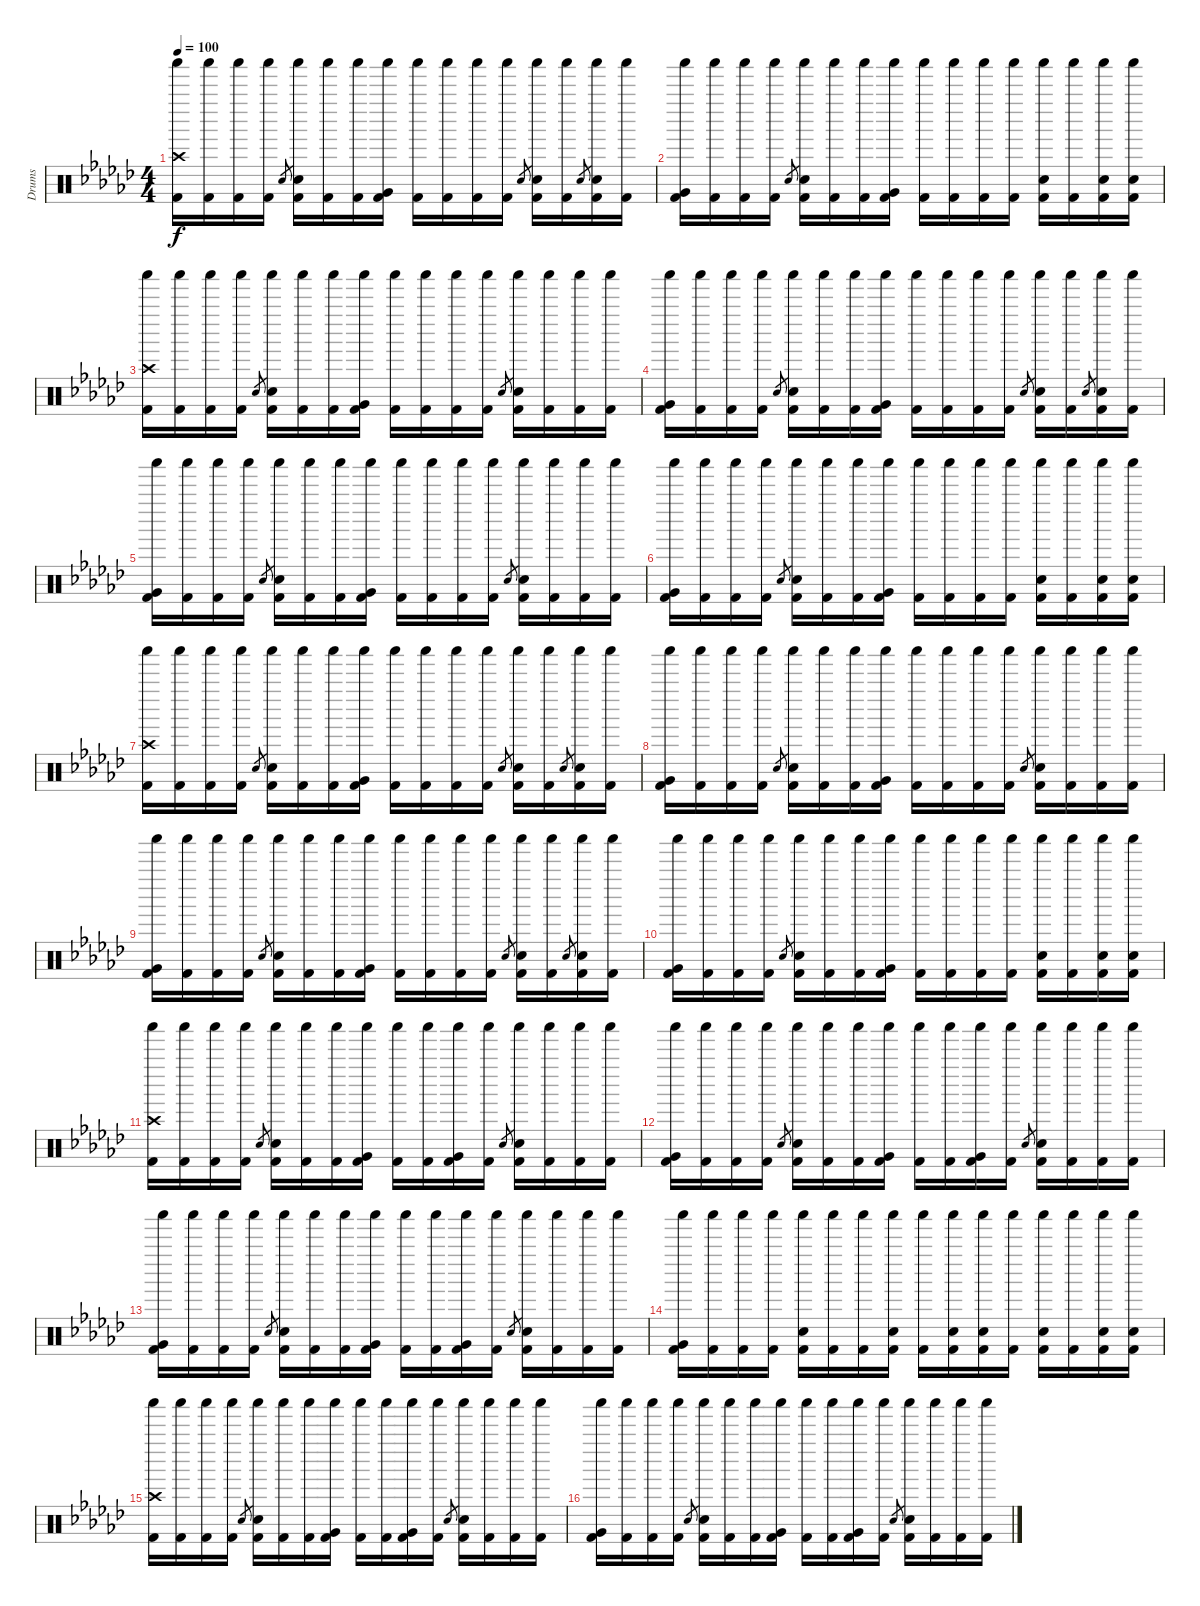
\track ("Drums" "Drums") {instrument percussion}
\staff {score}
\articulation defaults
\ts (4 4)
\tempo 100
\clef neutral
\ks gb
("Crash high (hit)" "Shaker (hit)" "Kick (hit) 2").16{dy f} ("Shaker (hit)" "Kick (hit) 2").16 ("Shaker (hit)" "Kick (hit) 2").16 ("Shaker (hit)" "Kick (hit) 2").16 "Electric Snare (hit)".8{gr} ("Shaker (hit)" "Electric Snare (hit)" "Kick (hit) 2").16 ("Shaker (hit)" "Kick (hit) 2").16 ("Shaker (hit)" "Kick (hit) 2").16 ("Shaker (hit)" "Very Low Tom (hit)" "Kick (hit) 2").16 ("Shaker (hit)" "Kick (hit) 2").16 ("Shaker (hit)" "Kick (hit) 2").16 ("Shaker (hit)" "Kick (hit) 2").16 ("Shaker (hit)" "Kick (hit) 2").16 "Electric Snare (hit)".8{gr} ("Shaker (hit)" "Electric Snare (hit)" "Kick (hit) 2").16 ("Shaker (hit)" "Kick (hit) 2").16 "Electric Snare (hit)".8{gr} ("Shaker (hit)" "Electric Snare (hit)" "Kick (hit) 2").16 ("Shaker (hit)" "Kick (hit) 2").16 |
("Shaker (hit)" "Very Low Tom (hit)" "Kick (hit) 2").16 ("Shaker (hit)" "Kick (hit) 2").16 ("Shaker (hit)" "Kick (hit) 2").16 ("Shaker (hit)" "Kick (hit) 2").16 "Electric Snare (hit)".8{gr} ("Shaker (hit)" "Electric Snare (hit)" "Kick (hit) 2").16 ("Shaker (hit)" "Kick (hit) 2").16 ("Shaker (hit)" "Kick (hit) 2").16 ("Shaker (hit)" "Very Low Tom (hit)" "Kick (hit) 2").16 ("Shaker (hit)" "Kick (hit) 2").16 ("Shaker (hit)" "Kick (hit) 2").16 ("Shaker (hit)" "Kick (hit) 2").16 ("Shaker (hit)" "Kick (hit) 2").16 ("Shaker (hit)" "Electric Snare (hit)" "Kick (hit) 2").16 ("Shaker (hit)" "Kick (hit) 2").16 ("Shaker (hit)" "Electric Snare (hit)" "Kick (hit) 2").16 ("Shaker (hit)" "Electric Snare (hit)" "Kick (hit) 2").16 |
("Crash high (hit)" "Shaker (hit)" "Kick (hit) 2").16 ("Shaker (hit)" "Kick (hit) 2").16 ("Shaker (hit)" "Kick (hit) 2").16 ("Shaker (hit)" "Kick (hit) 2").16 "Electric Snare (hit)".8{gr} ("Shaker (hit)" "Electric Snare (hit)" "Kick (hit) 2").16 ("Shaker (hit)" "Kick (hit) 2").16 ("Shaker (hit)" "Kick (hit) 2").16 ("Shaker (hit)" "Very Low Tom (hit)" "Kick (hit) 2").16 ("Shaker (hit)" "Kick (hit) 2").16 ("Shaker (hit)" "Kick (hit) 2").16 ("Shaker (hit)" "Kick (hit) 2").16 ("Shaker (hit)" "Kick (hit) 2").16 "Electric Snare (hit)".8{gr} ("Shaker (hit)" "Electric Snare (hit)" "Kick (hit) 2").16 ("Shaker (hit)" "Kick (hit) 2").16 ("Shaker (hit)" "Kick (hit) 2").16 ("Shaker (hit)" "Kick (hit) 2").16 |
("Shaker (hit)" "Very Low Tom (hit)" "Kick (hit) 2").16 ("Shaker (hit)" "Kick (hit) 2").16 ("Shaker (hit)" "Kick (hit) 2").16 ("Shaker (hit)" "Kick (hit) 2").16 "Electric Snare (hit)".8{gr} ("Shaker (hit)" "Electric Snare (hit)" "Kick (hit) 2").16 ("Shaker (hit)" "Kick (hit) 2").16 ("Shaker (hit)" "Kick (hit) 2").16 ("Shaker (hit)" "Very Low Tom (hit)" "Kick (hit) 2").16 ("Shaker (hit)" "Kick (hit) 2").16 ("Shaker (hit)" "Kick (hit) 2").16 ("Shaker (hit)" "Kick (hit) 2").16 ("Shaker (hit)" "Kick (hit) 2").16 "Electric Snare (hit)".8{gr} ("Shaker (hit)" "Electric Snare (hit)" "Kick (hit) 2").16 ("Shaker (hit)" "Kick (hit) 2").16 "Electric Snare (hit)".8{gr} ("Shaker (hit)" "Electric Snare (hit)" "Kick (hit) 2").16 ("Shaker (hit)" "Kick (hit) 2").16 |
("Shaker (hit)" "Very Low Tom (hit)" "Kick (hit) 2").16 ("Shaker (hit)" "Kick (hit) 2").16 ("Shaker (hit)" "Kick (hit) 2").16 ("Shaker (hit)" "Kick (hit) 2").16 "Electric Snare (hit)".8{gr} ("Shaker (hit)" "Electric Snare (hit)" "Kick (hit) 2").16 ("Shaker (hit)" "Kick (hit) 2").16 ("Shaker (hit)" "Kick (hit) 2").16 ("Shaker (hit)" "Very Low Tom (hit)" "Kick (hit) 2").16 ("Shaker (hit)" "Kick (hit) 2").16 ("Shaker (hit)" "Kick (hit) 2").16 ("Shaker (hit)" "Kick (hit) 2").16 ("Shaker (hit)" "Kick (hit) 2").16 "Electric Snare (hit)".8{gr} ("Shaker (hit)" "Electric Snare (hit)" "Kick (hit) 2").16 ("Shaker (hit)" "Kick (hit) 2").16 ("Shaker (hit)" "Kick (hit) 2").16 ("Shaker (hit)" "Kick (hit) 2").16 |
("Shaker (hit)" "Very Low Tom (hit)" "Kick (hit) 2").16 ("Shaker (hit)" "Kick (hit) 2").16 ("Shaker (hit)" "Kick (hit) 2").16 ("Shaker (hit)" "Kick (hit) 2").16 "Electric Snare (hit)".8{gr} ("Shaker (hit)" "Electric Snare (hit)" "Kick (hit) 2").16 ("Shaker (hit)" "Kick (hit) 2").16 ("Shaker (hit)" "Kick (hit) 2").16 ("Shaker (hit)" "Very Low Tom (hit)" "Kick (hit) 2").16 ("Shaker (hit)" "Kick (hit) 2").16 ("Shaker (hit)" "Kick (hit) 2").16 ("Shaker (hit)" "Kick (hit) 2").16 ("Shaker (hit)" "Kick (hit) 2").16 ("Shaker (hit)" "Electric Snare (hit)" "Kick (hit) 2").16 ("Shaker (hit)" "Kick (hit) 2").16 ("Shaker (hit)" "Electric Snare (hit)" "Kick (hit) 2").16 ("Shaker (hit)" "Electric Snare (hit)" "Kick (hit) 2").16 |
("Crash high (hit)" "Shaker (hit)" "Kick (hit) 2").16 ("Shaker (hit)" "Kick (hit) 2").16 ("Shaker (hit)" "Kick (hit) 2").16 ("Shaker (hit)" "Kick (hit) 2").16 "Electric Snare (hit)".8{gr} ("Shaker (hit)" "Electric Snare (hit)" "Kick (hit) 2").16 ("Shaker (hit)" "Kick (hit) 2").16 ("Shaker (hit)" "Kick (hit) 2").16 ("Shaker (hit)" "Very Low Tom (hit)" "Kick (hit) 2").16 ("Shaker (hit)" "Kick (hit) 2").16 ("Shaker (hit)" "Kick (hit) 2").16 ("Shaker (hit)" "Kick (hit) 2").16 ("Shaker (hit)" "Kick (hit) 2").16 "Electric Snare (hit)".8{gr} ("Shaker (hit)" "Electric Snare (hit)" "Kick (hit) 2").16 ("Shaker (hit)" "Kick (hit) 2").16 "Electric Snare (hit)".8{gr} ("Shaker (hit)" "Electric Snare (hit)" "Kick (hit) 2").16 ("Shaker (hit)" "Kick (hit) 2").16 |
("Shaker (hit)" "Very Low Tom (hit)" "Kick (hit) 2").16 ("Shaker (hit)" "Kick (hit) 2").16 ("Shaker (hit)" "Kick (hit) 2").16 ("Shaker (hit)" "Kick (hit) 2").16 "Electric Snare (hit)".8{gr} ("Shaker (hit)" "Electric Snare (hit)" "Kick (hit) 2").16 ("Shaker (hit)" "Kick (hit) 2").16 ("Shaker (hit)" "Kick (hit) 2").16 ("Shaker (hit)" "Very Low Tom (hit)" "Kick (hit) 2").16 ("Shaker (hit)" "Kick (hit) 2").16 ("Shaker (hit)" "Kick (hit) 2").16 ("Shaker (hit)" "Kick (hit) 2").16 ("Shaker (hit)" "Kick (hit) 2").16 "Electric Snare (hit)".8{gr} ("Shaker (hit)" "Electric Snare (hit)" "Kick (hit) 2").16 ("Shaker (hit)" "Kick (hit) 2").16 ("Shaker (hit)" "Kick (hit) 2").16 ("Shaker (hit)" "Kick (hit) 2").16 |
("Shaker (hit)" "Very Low Tom (hit)" "Kick (hit) 2").16 ("Shaker (hit)" "Kick (hit) 2").16 ("Shaker (hit)" "Kick (hit) 2").16 ("Shaker (hit)" "Kick (hit) 2").16 "Electric Snare (hit)".8{gr} ("Shaker (hit)" "Electric Snare (hit)" "Kick (hit) 2").16 ("Shaker (hit)" "Kick (hit) 2").16 ("Shaker (hit)" "Kick (hit) 2").16 ("Shaker (hit)" "Very Low Tom (hit)" "Kick (hit) 2").16 ("Shaker (hit)" "Kick (hit) 2").16 ("Shaker (hit)" "Kick (hit) 2").16 ("Shaker (hit)" "Kick (hit) 2").16 ("Shaker (hit)" "Kick (hit) 2").16 "Electric Snare (hit)".8{gr} ("Shaker (hit)" "Electric Snare (hit)" "Kick (hit) 2").16 ("Shaker (hit)" "Kick (hit) 2").16 "Electric Snare (hit)".8{gr} ("Shaker (hit)" "Electric Snare (hit)" "Kick (hit) 2").16 ("Shaker (hit)" "Kick (hit) 2").16 |
("Shaker (hit)" "Very Low Tom (hit)" "Kick (hit) 2").16 ("Shaker (hit)" "Kick (hit) 2").16 ("Shaker (hit)" "Kick (hit) 2").16 ("Shaker (hit)" "Kick (hit) 2").16 "Electric Snare (hit)".8{gr} ("Shaker (hit)" "Electric Snare (hit)" "Kick (hit) 2").16 ("Shaker (hit)" "Kick (hit) 2").16 ("Shaker (hit)" "Kick (hit) 2").16 ("Shaker (hit)" "Very Low Tom (hit)" "Kick (hit) 2").16 ("Shaker (hit)" "Kick (hit) 2").16 ("Shaker (hit)" "Kick (hit) 2").16 ("Shaker (hit)" "Kick (hit) 2").16 ("Shaker (hit)" "Kick (hit) 2").16 ("Shaker (hit)" "Electric Snare (hit)" "Kick (hit) 2").16 ("Shaker (hit)" "Kick (hit) 2").16 ("Shaker (hit)" "Electric Snare (hit)" "Kick (hit) 2").16 ("Shaker (hit)" "Electric Snare (hit)" "Kick (hit) 2").16 |
("Crash high (hit)" "Shaker (hit)" "Kick (hit) 2").16 ("Shaker (hit)" "Kick (hit) 2").16 ("Shaker (hit)" "Kick (hit) 2").16 ("Shaker (hit)" "Kick (hit) 2").16 "Electric Snare (hit)".8{gr} ("Shaker (hit)" "Electric Snare (hit)" "Kick (hit) 2").16 ("Shaker (hit)" "Kick (hit) 2").16 ("Shaker (hit)" "Kick (hit) 2").16 ("Shaker (hit)" "Very Low Tom (hit)" "Kick (hit) 2").16 ("Shaker (hit)" "Kick (hit) 2").16 ("Shaker (hit)" "Kick (hit) 2").16 ("Shaker (hit)" "Very Low Tom (hit)" "Kick (hit) 2").16 ("Shaker (hit)" "Kick (hit) 2").16 "Electric Snare (hit)".8{gr} ("Shaker (hit)" "Electric Snare (hit)" "Kick (hit) 2").16 ("Shaker (hit)" "Kick (hit) 2").16 ("Shaker (hit)" "Kick (hit) 2").16 ("Shaker (hit)" "Kick (hit) 2").16 |
("Shaker (hit)" "Very Low Tom (hit)" "Kick (hit) 2").16 ("Shaker (hit)" "Kick (hit) 2").16 ("Shaker (hit)" "Kick (hit) 2").16 ("Shaker (hit)" "Kick (hit) 2").16 "Electric Snare (hit)".8{gr} ("Shaker (hit)" "Electric Snare (hit)" "Kick (hit) 2").16 ("Shaker (hit)" "Kick (hit) 2").16 ("Shaker (hit)" "Kick (hit) 2").16 ("Shaker (hit)" "Very Low Tom (hit)" "Kick (hit) 2").16 ("Shaker (hit)" "Kick (hit) 2").16 ("Shaker (hit)" "Kick (hit) 2").16 ("Shaker (hit)" "Very Low Tom (hit)" "Kick (hit) 2").16 ("Shaker (hit)" "Kick (hit) 2").16 "Electric Snare (hit)".8{gr} ("Shaker (hit)" "Electric Snare (hit)" "Kick (hit) 2").16 ("Shaker (hit)" "Kick (hit) 2").16 ("Shaker (hit)" "Kick (hit) 2").16 ("Shaker (hit)" "Kick (hit) 2").16 |
("Shaker (hit)" "Very Low Tom (hit)" "Kick (hit) 2").16 ("Shaker (hit)" "Kick (hit) 2").16 ("Shaker (hit)" "Kick (hit) 2").16 ("Shaker (hit)" "Kick (hit) 2").16 "Electric Snare (hit)".8{gr} ("Shaker (hit)" "Electric Snare (hit)" "Kick (hit) 2").16 ("Shaker (hit)" "Kick (hit) 2").16 ("Shaker (hit)" "Kick (hit) 2").16 ("Shaker (hit)" "Very Low Tom (hit)" "Kick (hit) 2").16 ("Shaker (hit)" "Kick (hit) 2").16 ("Shaker (hit)" "Kick (hit) 2").16 ("Shaker (hit)" "Very Low Tom (hit)" "Kick (hit) 2").16 ("Shaker (hit)" "Kick (hit) 2").16 "Electric Snare (hit)".8{gr} ("Shaker (hit)" "Electric Snare (hit)" "Kick (hit) 2").16 ("Shaker (hit)" "Kick (hit) 2").16 ("Shaker (hit)" "Kick (hit) 2").16 ("Shaker (hit)" "Kick (hit) 2").16 |
("Shaker (hit)" "Very Low Tom (hit)" "Kick (hit) 2").16 ("Shaker (hit)" "Kick (hit) 2").16 ("Shaker (hit)" "Kick (hit) 2").16 ("Shaker (hit)" "Kick (hit) 2").16 ("Shaker (hit)" "Electric Snare (hit)" "Kick (hit) 2").16 ("Shaker (hit)" "Kick (hit) 2").16 ("Shaker (hit)" "Kick (hit) 2").16 ("Shaker (hit)" "Electric Snare (hit)" "Kick (hit) 2").16 ("Shaker (hit)" "Kick (hit) 2").16 ("Shaker (hit)" "Electric Snare (hit)" "Kick (hit) 2").16 ("Shaker (hit)" "Electric Snare (hit)" "Kick (hit) 2").16 ("Shaker (hit)" "Kick (hit) 2").16 ("Shaker (hit)" "Electric Snare (hit)" "Kick (hit) 2").16 ("Shaker (hit)" "Kick (hit) 2").16 ("Shaker (hit)" "Electric Snare (hit)" "Kick (hit) 2").16 ("Shaker (hit)" "Electric Snare (hit)" "Kick (hit) 2").16 |
("Crash high (hit)" "Shaker (hit)" "Kick (hit) 2").16 ("Shaker (hit)" "Kick (hit) 2").16 ("Shaker (hit)" "Kick (hit) 2").16 ("Shaker (hit)" "Kick (hit) 2").16 "Electric Snare (hit)".8{gr} ("Shaker (hit)" "Electric Snare (hit)" "Kick (hit) 2").16 ("Shaker (hit)" "Kick (hit) 2").16 ("Shaker (hit)" "Kick (hit) 2").16 ("Shaker (hit)" "Very Low Tom (hit)" "Kick (hit) 2").16 ("Shaker (hit)" "Kick (hit) 2").16 ("Shaker (hit)" "Kick (hit) 2").16 ("Shaker (hit)" "Very Low Tom (hit)" "Kick (hit) 2").16 ("Shaker (hit)" "Kick (hit) 2").16 "Electric Snare (hit)".8{gr} ("Shaker (hit)" "Electric Snare (hit)" "Kick (hit) 2").16 ("Shaker (hit)" "Kick (hit) 2").16 ("Shaker (hit)" "Kick (hit) 2").16 ("Shaker (hit)" "Kick (hit) 2").16 |
("Shaker (hit)" "Very Low Tom (hit)" "Kick (hit) 2").16 ("Shaker (hit)" "Kick (hit) 2").16 ("Shaker (hit)" "Kick (hit) 2").16 ("Shaker (hit)" "Kick (hit) 2").16 "Electric Snare (hit)".8{gr} ("Shaker (hit)" "Electric Snare (hit)" "Kick (hit) 2").16 ("Shaker (hit)" "Kick (hit) 2").16 ("Shaker (hit)" "Kick (hit) 2").16 ("Shaker (hit)" "Very Low Tom (hit)" "Kick (hit) 2").16 ("Shaker (hit)" "Kick (hit) 2").16 ("Shaker (hit)" "Kick (hit) 2").16 ("Shaker (hit)" "Very Low Tom (hit)" "Kick (hit) 2").16 ("Shaker (hit)" "Kick (hit) 2").16 "Electric Snare (hit)".8{gr} ("Shaker (hit)" "Electric Snare (hit)" "Kick (hit) 2").16 ("Shaker (hit)" "Kick (hit) 2").16 ("Shaker (hit)" "Kick (hit) 2").16 ("Shaker (hit)" "Kick (hit) 2").16
